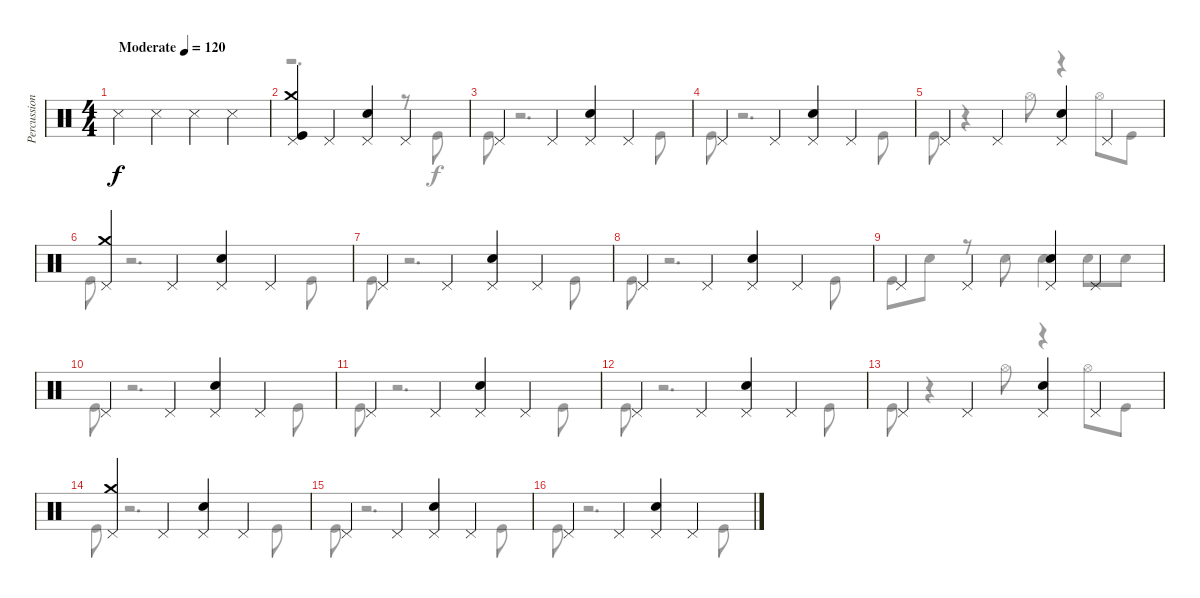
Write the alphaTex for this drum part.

\track ("Percussion" "Percussion") {instrument percussion}
\staff {score}
\articulation defaults
\voice
\ts (4 4)
\tempo (120 "Moderate")
\clef neutral
\ks c "Snare (side stick) 3".4{dy f} "Snare (side stick) 3".4 "Snare (side stick) 3".4 "Snare (side stick) 3".4
|
("Pedal Hi-Hat (hit)" "Crash medium (hit)" "Kick (hit)").4 "Pedal Hi-Hat (hit)".4 ("Pedal Hi-Hat (hit)" "Electric Snare (hit)").4 "Pedal Hi-Hat (hit)".4 |
"Pedal Hi-Hat (hit)".4 "Pedal Hi-Hat (hit)".4 ("Pedal Hi-Hat (hit)" "Electric Snare (hit)").4 "Pedal Hi-Hat (hit)".4 |
"Pedal Hi-Hat (hit)".4 "Pedal Hi-Hat (hit)".4 ("Pedal Hi-Hat (hit)" "Electric Snare (hit)").4 "Pedal Hi-Hat (hit)".4 |
"Pedal Hi-Hat (hit)".4 "Pedal Hi-Hat (hit)".4 ("Pedal Hi-Hat (hit)" "Electric Snare (hit)").4 "Pedal Hi-Hat (hit)".4 |
("Pedal Hi-Hat (hit)" "Crash medium (hit)").4 "Pedal Hi-Hat (hit)".4 ("Pedal Hi-Hat (hit)" "Electric Snare (hit)").4 "Pedal Hi-Hat (hit)".4 |
"Pedal Hi-Hat (hit)".4 "Pedal Hi-Hat (hit)".4 ("Pedal Hi-Hat (hit)" "Electric Snare (hit)").4 "Pedal Hi-Hat (hit)".4 |
"Pedal Hi-Hat (hit)".4 "Pedal Hi-Hat (hit)".4 ("Pedal Hi-Hat (hit)" "Electric Snare (hit)").4 "Pedal Hi-Hat (hit)".4 |
"Pedal Hi-Hat (hit)".4 "Pedal Hi-Hat (hit)".4 ("Pedal Hi-Hat (hit)" "Electric Snare (hit)").4 "Pedal Hi-Hat (hit)".4 |
"Pedal Hi-Hat (hit)".4 "Pedal Hi-Hat (hit)".4 ("Pedal Hi-Hat (hit)" "Electric Snare (hit)").4 "Pedal Hi-Hat (hit)".4 |
"Pedal Hi-Hat (hit)".4 "Pedal Hi-Hat (hit)".4 ("Pedal Hi-Hat (hit)" "Electric Snare (hit)").4 "Pedal Hi-Hat (hit)".4 |
"Pedal Hi-Hat (hit)".4 "Pedal Hi-Hat (hit)".4 ("Pedal Hi-Hat (hit)" "Electric Snare (hit)").4 "Pedal Hi-Hat (hit)".4 |
"Pedal Hi-Hat (hit)".4 "Pedal Hi-Hat (hit)".4 ("Pedal Hi-Hat (hit)" "Electric Snare (hit)").4 "Pedal Hi-Hat (hit)".4 |
("Pedal Hi-Hat (hit)" "Crash medium (hit)").4 "Pedal Hi-Hat (hit)".4 ("Pedal Hi-Hat (hit)" "Electric Snare (hit)").4 "Pedal Hi-Hat (hit)".4 |
"Pedal Hi-Hat (hit)".4 "Pedal Hi-Hat (hit)".4 ("Pedal Hi-Hat (hit)" "Electric Snare (hit)").4 "Pedal Hi-Hat (hit)".4 |
"Pedal Hi-Hat (hit)".4 "Pedal Hi-Hat (hit)".4 ("Pedal Hi-Hat (hit)" "Electric Snare (hit)").4 "Pedal Hi-Hat (hit)".4
\voice
\clef neutral
\ottava regular
\simile none
\ks c
|
r.2{d} r.8 "Kick (hit)".8 |
"Kick (hit)".8 r.2{d} "Kick (hit)".8 |
"Kick (hit)".8 r.2{d} "Kick (hit)".8 |
"Kick (hit)".8 r.4 "Hi-Hat (open)".8 r.4 "Hi-Hat (open)".8 "Kick (hit)".8 |
"Kick (hit)".8 r.2{d} "Kick (hit)".8 |
"Kick (hit)".8 r.2{d} "Kick (hit)".8 |
"Kick (hit)".8 r.2{d} "Kick (hit)".8 |
"Kick (hit)".8 "Electric Snare (hit)".8 r.8 "Electric Snare (hit)".8 "Electric Snare (hit)".4 "Electric Snare (hit)".8 "Electric Snare (hit)".8 |
"Kick (hit)".8 r.2{d} "Kick (hit)".8 |
"Kick (hit)".8 r.2{d} "Kick (hit)".8 |
"Kick (hit)".8 r.2{d} "Kick (hit)".8 |
"Kick (hit)".8 r.4 "Hi-Hat (open)".8 r.4 "Hi-Hat (open)".8 "Kick (hit)".8 |
"Kick (hit)".8 r.2{d} "Kick (hit)".8 |
"Kick (hit)".8 r.2{d} "Kick (hit)".8 |
"Kick (hit)".8 r.2{d} "Kick (hit)".8
